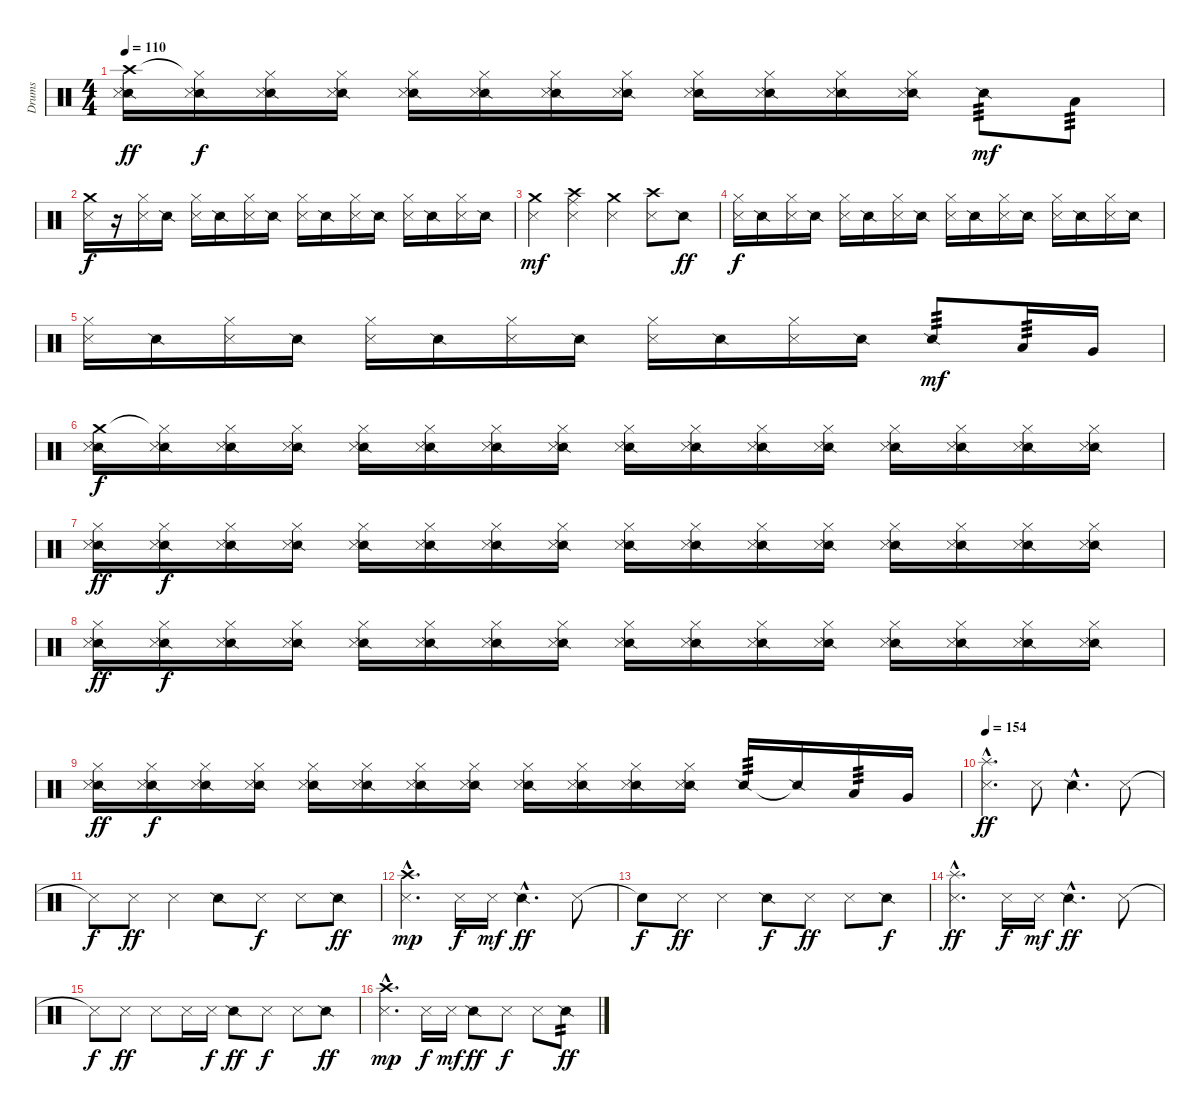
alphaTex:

\track ("Drums" "Drums") {instrument percussion}
\staff {score}
\articulation defaults
\ts (4 4)
\tempo 110
\clef neutral
\ks c
("Crash high (hit)" "Snare (side stick) 2" "Metronome (hit)").16{dy ff} ("Hi-Hat (closed)"{t} "Snare (side stick) 2" "Metronome (hit)").16{dy f} ("Hi-Hat (closed)" "Snare (side stick) 2" "Metronome (hit)").16 ("Hi-Hat (closed)" "Snare (side stick) 2" "Metronome (hit)").16 ("Hi-Hat (closed)" "Snare (side stick) 2" "Metronome (hit)").16 ("Hi-Hat (closed)" "Snare (side stick) 2" "Metronome (hit)").16 ("Hi-Hat (closed)" "Snare (side stick) 2" "Metronome (hit)").16 ("Hi-Hat (closed)" "Snare (side stick) 2" "Metronome (hit)").16 ("Hi-Hat (closed)" "Snare (side stick) 2" "Metronome (hit)").16 ("Hi-Hat (closed)" "Snare (side stick) 2" "Metronome (hit)").16 ("Hi-Hat (closed)" "Snare (side stick) 2" "Metronome (hit)").16 ("Hi-Hat (closed)" "Snare (side stick) 2" "Metronome (hit)").16 "Snare (side stick) 2".8{tp 3 dy mf} "Low Tom (hit)".8{tp 3} |
("Crash medium (hit)" "Metronome (hit)").16{dy f} r.16 ("Metronome (hit)" "Hi-Hat (closed)").16 "Snare (side stick) 2".16 ("Metronome (hit)" "Hi-Hat (closed)").16 "Snare (side stick) 2".16 ("Metronome (hit)" "Hi-Hat (closed)").16 "Snare (side stick) 2".16 ("Metronome (hit)" "Hi-Hat (closed)").16 "Snare (side stick) 2".16 ("Metronome (hit)" "Hi-Hat (closed)").16 "Snare (side stick) 2".16 ("Metronome (hit)" "Hi-Hat (closed)").16 "Snare (side stick) 2".16 ("Metronome (hit)" "Hi-Hat (closed)").16 "Snare (side stick) 2".16 |
("Metronome (hit)" "Crash medium (hit)").4{dy mf} ("Metronome (hit)" "Crash high (hit)" "Ride (middle)").4 ("Metronome (hit)" "Crash medium (hit)").4 ("Metronome (hit)" "Crash high (hit)").8 "Snare (side stick) 2".8{dy ff} |
("Metronome (hit)" "Hi-Hat (closed)").16{dy f} "Snare (side stick) 2".16 ("Metronome (hit)" "Hi-Hat (closed)").16 "Snare (side stick) 2".16 ("Metronome (hit)" "Hi-Hat (closed)").16 "Snare (side stick) 2".16 ("Metronome (hit)" "Hi-Hat (closed)").16 "Snare (side stick) 2".16 ("Metronome (hit)" "Hi-Hat (closed)").16 "Snare (side stick) 2".16 ("Metronome (hit)" "Hi-Hat (closed)").16 "Snare (side stick) 2".16 ("Metronome (hit)" "Hi-Hat (closed)").16 "Snare (side stick) 2".16 ("Metronome (hit)" "Hi-Hat (closed)").16 "Snare (side stick) 2".16 |
("Metronome (hit)" "Hi-Hat (closed)").16 "Snare (side stick) 2".16 ("Metronome (hit)" "Hi-Hat (closed)").16 "Snare (side stick) 2".16 ("Metronome (hit)" "Hi-Hat (closed)").16 "Snare (side stick) 2".16 ("Metronome (hit)" "Hi-Hat (closed)").16 "Snare (side stick) 2".16 ("Metronome (hit)" "Hi-Hat (closed)").16 "Snare (side stick) 2".16 ("Metronome (hit)" "Hi-Hat (closed)").16 "Snare (side stick) 2".16 "Snare (side stick) 2".8{tp 3 dy mf} "Low Tom (hit)".16{tp 3} "Very Low Tom (hit)".16 |
("Crash medium (hit)" "Snare (side stick) 2" "Metronome (hit)").16{dy f} ("Hi-Hat (closed)"{t} "Snare (side stick) 2" "Metronome (hit)").16 ("Hi-Hat (closed)" "Snare (side stick) 2" "Metronome (hit)").16 ("Hi-Hat (closed)" "Snare (side stick) 2" "Metronome (hit)").16 ("Hi-Hat (closed)" "Snare (side stick) 2" "Metronome (hit)").16 ("Hi-Hat (closed)" "Snare (side stick) 2" "Metronome (hit)").16 ("Hi-Hat (closed)" "Snare (side stick) 2" "Metronome (hit)").16 ("Hi-Hat (closed)" "Snare (side stick) 2" "Metronome (hit)").16 ("Hi-Hat (closed)" "Snare (side stick) 2" "Metronome (hit)").16 ("Hi-Hat (closed)" "Snare (side stick) 2" "Metronome (hit)").16 ("Hi-Hat (closed)" "Snare (side stick) 2" "Metronome (hit)").16 ("Hi-Hat (closed)" "Snare (side stick) 2" "Metronome (hit)").16 ("Hi-Hat (closed)" "Snare (side stick) 2" "Metronome (hit)").16 ("Hi-Hat (closed)" "Snare (side stick) 2" "Metronome (hit)").16 ("Hi-Hat (closed)" "Snare (side stick) 2" "Metronome (hit)").16 ("Hi-Hat (closed)" "Snare (side stick) 2" "Metronome (hit)").16 |
("Hi-Hat (closed)" "Snare (side stick) 2" "Metronome (hit)").16{dy ff} ("Hi-Hat (closed)" "Snare (side stick) 2" "Metronome (hit)").16{dy f} ("Hi-Hat (closed)" "Snare (side stick) 2" "Metronome (hit)").16 ("Hi-Hat (closed)" "Snare (side stick) 2" "Metronome (hit)").16 ("Hi-Hat (closed)" "Snare (side stick) 2" "Metronome (hit)").16 ("Hi-Hat (closed)" "Snare (side stick) 2" "Metronome (hit)").16 ("Hi-Hat (closed)" "Snare (side stick) 2" "Metronome (hit)").16 ("Hi-Hat (closed)" "Snare (side stick) 2" "Metronome (hit)").16 ("Hi-Hat (closed)" "Snare (side stick) 2" "Metronome (hit)").16 ("Hi-Hat (closed)" "Snare (side stick) 2" "Metronome (hit)").16 ("Hi-Hat (closed)" "Snare (side stick) 2" "Metronome (hit)").16 ("Hi-Hat (closed)" "Snare (side stick) 2" "Metronome (hit)").16 ("Hi-Hat (closed)" "Snare (side stick) 2" "Metronome (hit)").16 ("Hi-Hat (closed)" "Snare (side stick) 2" "Metronome (hit)").16 ("Hi-Hat (closed)" "Snare (side stick) 2" "Metronome (hit)").16 ("Hi-Hat (closed)" "Snare (side stick) 2" "Metronome (hit)").16 |
("Hi-Hat (closed)" "Snare (side stick) 2" "Metronome (hit)").16{dy ff} ("Hi-Hat (closed)" "Snare (side stick) 2" "Metronome (hit)").16{dy f} ("Hi-Hat (closed)" "Snare (side stick) 2" "Metronome (hit)").16 ("Hi-Hat (closed)" "Snare (side stick) 2" "Metronome (hit)").16 ("Hi-Hat (closed)" "Snare (side stick) 2" "Metronome (hit)").16 ("Hi-Hat (closed)" "Snare (side stick) 2" "Metronome (hit)").16 ("Hi-Hat (closed)" "Snare (side stick) 2" "Metronome (hit)").16 ("Hi-Hat (closed)" "Snare (side stick) 2" "Metronome (hit)").16 ("Hi-Hat (closed)" "Snare (side stick) 2" "Metronome (hit)").16 ("Hi-Hat (closed)" "Snare (side stick) 2" "Metronome (hit)").16 ("Hi-Hat (closed)" "Snare (side stick) 2" "Metronome (hit)").16 ("Hi-Hat (closed)" "Snare (side stick) 2" "Metronome (hit)").16 ("Hi-Hat (closed)" "Snare (side stick) 2" "Metronome (hit)").16 ("Hi-Hat (closed)" "Snare (side stick) 2" "Metronome (hit)").16 ("Hi-Hat (closed)" "Snare (side stick) 2" "Metronome (hit)").16 ("Hi-Hat (closed)" "Snare (side stick) 2" "Metronome (hit)").16 |
("Hi-Hat (closed)" "Snare (side stick) 2" "Metronome (hit)").16{dy ff} ("Hi-Hat (closed)" "Snare (side stick) 2" "Metronome (hit)").16{dy f} ("Hi-Hat (closed)" "Snare (side stick) 2" "Metronome (hit)").16 ("Hi-Hat (closed)" "Snare (side stick) 2" "Metronome (hit)").16 ("Hi-Hat (closed)" "Snare (side stick) 2" "Metronome (hit)").16 ("Hi-Hat (closed)" "Snare (side stick) 2" "Metronome (hit)").16 ("Hi-Hat (closed)" "Snare (side stick) 2" "Metronome (hit)").16 ("Hi-Hat (closed)" "Snare (side stick) 2" "Metronome (hit)").16 ("Hi-Hat (closed)" "Snare (side stick) 2" "Metronome (hit)").16 ("Hi-Hat (closed)" "Snare (side stick) 2" "Metronome (hit)").16 ("Hi-Hat (closed)" "Snare (side stick) 2" "Metronome (hit)").16 ("Hi-Hat (closed)" "Snare (side stick) 2" "Metronome (hit)").16 "Snare (side stick) 2".16{tp 3} "Snare (side stick) 2"{t}.16 "Low Tom (hit)".16{tp 3} "Very Low Tom (hit)".16 |
\tempo 154
("Metronome (hit)"{hac} "Splash (hit)"{hac}).4{d dy ff} "Metronome (hit)".8 "Snare (side stick) 2"{hac}.4{d} "Metronome (hit)".8 |
"Metronome (hit)"{t}.8{dy f} "Metronome (hit)".8{dy ff} "Metronome (hit)".4 "Snare (side stick) 2".8 "Metronome (hit)".8{dy f} "Metronome (hit)".8 "Snare (side stick) 2".8{dy ff} |
("Metronome (hit)"{hac} "Crash high (hit)"{hac}).4{d dy mp} "Metronome (hit)".16{dy f} "Metronome (hit)".16{dy mf} "Snare (side stick) 2"{hac}.4{d dy ff} "Metronome (hit)".8 |
"Snare (hit)"{t}.8{dy f} "Metronome (hit)".8{dy ff} "Metronome (hit)".4 "Snare (side stick) 2".8{dy f} "Metronome (hit)".8{dy ff} "Metronome (hit)".8 "Snare (side stick) 2".8{dy f} |
("Metronome (hit)"{hac} "Splash (hit)"{hac}).4{d dy ff} "Metronome (hit)".16{dy f} "Metronome (hit)".16{dy mf} "Snare (side stick) 2"{hac}.4{d dy ff} "Metronome (hit)".8 |
"Metronome (hit)"{t}.8{dy f} "Metronome (hit)".8{dy ff} "Metronome (hit)".8 "Metronome (hit)".16 "Metronome (hit)".16{dy f} "Snare (side stick) 2".8{dy ff} "Metronome (hit)".8{dy f} "Metronome (hit)".8 "Snare (side stick) 2".8{dy ff} |
("Metronome (hit)"{hac} "Crash high (hit)"{hac}).4{d dy mp} "Metronome (hit)".16{dy f} "Metronome (hit)".16{dy mf} "Snare (side stick) 2".8{dy ff} "Metronome (hit)".8{dy f} "Metronome (hit)".8 "Snare (side stick) 2".8{tp 2 dy ff}
